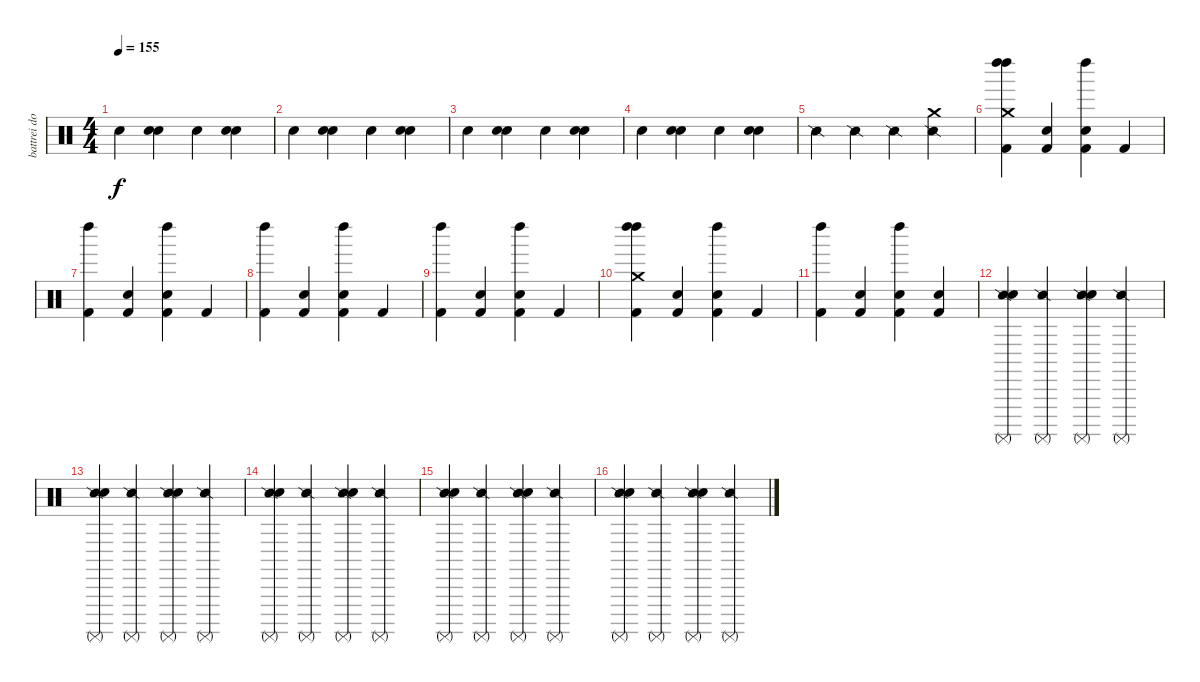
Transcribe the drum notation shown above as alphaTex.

\track ("battrei dom" "battrei do") {instrument percussion}
\staff {score}
\articulation defaults
\ts (4 4)
\tempo 155
\clef neutral
\ks c "Snare (hit) 2".4{dy f}
("Snare (hit) 2" "Snare (hit) 2").4 "Snare (hit) 2".4 ("Snare (hit) 2" "Snare (hit) 2").4 |
"Snare (hit) 2".4 ("Snare (hit) 2" "Snare (hit) 2").4 "Snare (hit) 2".4 ("Snare (hit) 2" "Snare (hit) 2").4 |
"Snare (hit) 2".4 ("Snare (hit) 2" "Snare (hit) 2").4 "Snare (hit) 2".4 ("Snare (hit) 2" "Snare (hit) 2").4 |
"Snare (hit) 2".4 ("Snare (hit) 2" "Snare (hit) 2").4 "Snare (hit) 2".4 ("Snare (hit) 2" "Snare (hit) 2").4 |
"Snare (side stick) 2".4 "Snare (side stick) 2".4 "Snare (side stick) 2".4 ("Snare (side stick) 2" "Crash medium (hit)").4 |
("Kick (hit) 2" "Crash medium (hit)" "Left Maraca (hit)" "Left Maraca (hit)").4 ("Kick (hit) 2" "Snare (hit) 2").4 ("Kick (hit) 2" "Snare (hit) 2" "Left Maraca (hit)").4 "Kick (hit) 2".4 |
("Kick (hit) 2" "Left Maraca (hit)").4 ("Kick (hit) 2" "Snare (hit) 2").4 ("Kick (hit) 2" "Snare (hit) 2" "Left Maraca (hit)").4 "Kick (hit) 2".4 |
("Kick (hit) 2" "Left Maraca (hit)").4 ("Kick (hit) 2" "Snare (hit) 2").4 ("Kick (hit) 2" "Snare (hit) 2" "Left Maraca (hit)").4 "Kick (hit) 2".4 |
("Kick (hit) 2" "Left Maraca (hit)").4 ("Kick (hit) 2" "Snare (hit) 2").4 ("Kick (hit) 2" "Snare (hit) 2" "Left Maraca (hit)").4 "Kick (hit) 2".4 |
("Kick (hit) 2" "Crash medium (hit)" "Left Maraca (hit)" "Left Maraca (hit)").4 ("Kick (hit) 2" "Snare (hit) 2").4 ("Kick (hit) 2" "Snare (hit) 2" "Left Maraca (hit)").4 "Kick (hit) 2".4 |
("Kick (hit) 2" "Left Maraca (hit)").4 ("Kick (hit) 2" "Snare (hit) 2").4 ("Kick (hit) 2" "Snare (hit) 2" "Left Maraca (hit)").4 ("Kick (hit) 2" "Snare (hit) 2").4 |
("Snare (side stick) 2" "Snare (hit) 2" "Surdo (mute)").4 ("Snare (side stick) 2" "Surdo (mute)").4 ("Snare (side stick) 2" "Snare (hit) 2" "Surdo (mute)").4 ("Snare (side stick) 2" "Surdo (mute)").4 |
("Snare (side stick) 2" "Snare (hit) 2" "Surdo (mute)").4 ("Snare (side stick) 2" "Surdo (mute)").4 ("Snare (side stick) 2" "Snare (hit) 2" "Surdo (mute)").4 ("Snare (side stick) 2" "Surdo (mute)").4 |
("Snare (side stick) 2" "Snare (hit) 2" "Surdo (mute)").4 ("Snare (side stick) 2" "Surdo (mute)").4 ("Snare (side stick) 2" "Snare (hit) 2" "Surdo (mute)").4 ("Snare (side stick) 2" "Surdo (mute)").4 |
("Snare (side stick) 2" "Snare (hit) 2" "Surdo (mute)").4 ("Snare (side stick) 2" "Surdo (mute)").4 ("Snare (side stick) 2" "Snare (hit) 2" "Surdo (mute)").4 ("Snare (side stick) 2" "Surdo (mute)").4 |
("Snare (side stick) 2" "Snare (hit) 2" "Surdo (mute)").4 ("Snare (side stick) 2" "Surdo (mute)").4 ("Snare (side stick) 2" "Snare (hit) 2" "Surdo (mute)").4 ("Snare (side stick) 2" "Surdo (mute)").4
